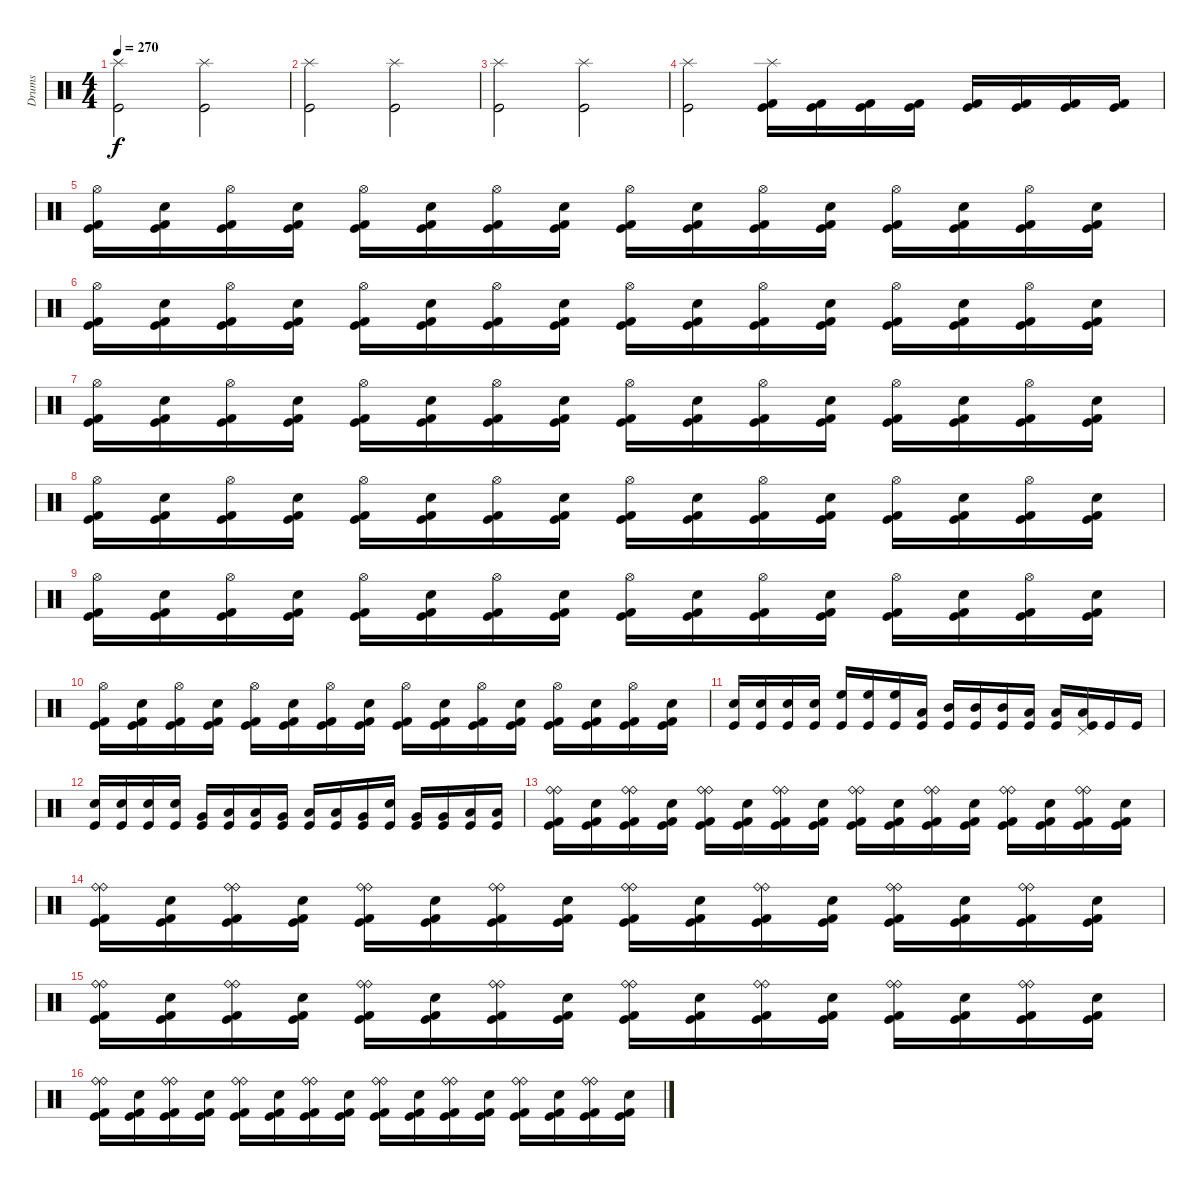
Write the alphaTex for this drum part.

\track ("Drums" "Drums") {instrument percussion}
\staff {score}
\articulation defaults
\ts (4 4)
\tempo 270
\clef neutral
\ks c
("Splash (hit)" "Kick (hit)").2{dy f} ("Splash (hit)" "Kick (hit)").2 |
("Splash (hit)" "Kick (hit)").2 ("Splash (hit)" "Kick (hit)").2 |
("Splash (hit)" "Kick (hit)").2 ("Splash (hit)" "Kick (hit)").2 |
("Splash (hit)" "Kick (hit)").2 ("Splash (hit)" "Kick (hit)" "Kick (hit) 2").16 ("Kick (hit)" "Kick (hit) 2").16 ("Kick (hit)" "Kick (hit) 2").16 ("Kick (hit)" "Kick (hit) 2").16 ("Kick (hit)" "Kick (hit) 2").16 ("Kick (hit)" "Kick (hit) 2").16 ("Kick (hit)" "Kick (hit) 2").16 ("Kick (hit)" "Kick (hit) 2").16 |
("Hi-Hat (open)" "Kick (hit)" "Kick (hit) 2").16 ("Electric Snare (hit)" "Kick (hit)" "Kick (hit) 2").16 ("Hi-Hat (open)" "Kick (hit)" "Kick (hit) 2").16 ("Electric Snare (hit)" "Kick (hit)" "Kick (hit) 2").16 ("Hi-Hat (open)" "Kick (hit)" "Kick (hit) 2").16 ("Electric Snare (hit)" "Kick (hit)" "Kick (hit) 2").16 ("Hi-Hat (open)" "Kick (hit)" "Kick (hit) 2").16 ("Electric Snare (hit)" "Kick (hit)" "Kick (hit) 2").16 ("Hi-Hat (open)" "Kick (hit)" "Kick (hit) 2").16 ("Electric Snare (hit)" "Kick (hit)" "Kick (hit) 2").16 ("Hi-Hat (open)" "Kick (hit)" "Kick (hit) 2").16 ("Electric Snare (hit)" "Kick (hit)" "Kick (hit) 2").16 ("Hi-Hat (open)" "Kick (hit)" "Kick (hit) 2").16 ("Electric Snare (hit)" "Kick (hit)" "Kick (hit) 2").16 ("Hi-Hat (open)" "Kick (hit)" "Kick (hit) 2").16 ("Electric Snare (hit)" "Kick (hit)" "Kick (hit) 2").16 |
("Hi-Hat (open)" "Kick (hit)" "Kick (hit) 2").16 ("Electric Snare (hit)" "Kick (hit)" "Kick (hit) 2").16 ("Hi-Hat (open)" "Kick (hit)" "Kick (hit) 2").16 ("Electric Snare (hit)" "Kick (hit)" "Kick (hit) 2").16 ("Hi-Hat (open)" "Kick (hit)" "Kick (hit) 2").16 ("Electric Snare (hit)" "Kick (hit)" "Kick (hit) 2").16 ("Hi-Hat (open)" "Kick (hit)" "Kick (hit) 2").16 ("Electric Snare (hit)" "Kick (hit)" "Kick (hit) 2").16 ("Hi-Hat (open)" "Kick (hit)" "Kick (hit) 2").16 ("Electric Snare (hit)" "Kick (hit)" "Kick (hit) 2").16 ("Hi-Hat (open)" "Kick (hit)" "Kick (hit) 2").16 ("Electric Snare (hit)" "Kick (hit)" "Kick (hit) 2").16 ("Hi-Hat (open)" "Kick (hit)" "Kick (hit) 2").16 ("Electric Snare (hit)" "Kick (hit)" "Kick (hit) 2").16 ("Hi-Hat (open)" "Kick (hit)" "Kick (hit) 2").16 ("Electric Snare (hit)" "Kick (hit)" "Kick (hit) 2").16 |
("Hi-Hat (open)" "Kick (hit)" "Kick (hit) 2").16 ("Electric Snare (hit)" "Kick (hit)" "Kick (hit) 2").16 ("Hi-Hat (open)" "Kick (hit)" "Kick (hit) 2").16 ("Electric Snare (hit)" "Kick (hit)" "Kick (hit) 2").16 ("Hi-Hat (open)" "Kick (hit)" "Kick (hit) 2").16 ("Electric Snare (hit)" "Kick (hit)" "Kick (hit) 2").16 ("Hi-Hat (open)" "Kick (hit)" "Kick (hit) 2").16 ("Electric Snare (hit)" "Kick (hit)" "Kick (hit) 2").16 ("Hi-Hat (open)" "Kick (hit)" "Kick (hit) 2").16 ("Electric Snare (hit)" "Kick (hit)" "Kick (hit) 2").16 ("Hi-Hat (open)" "Kick (hit)" "Kick (hit) 2").16 ("Electric Snare (hit)" "Kick (hit)" "Kick (hit) 2").16 ("Hi-Hat (open)" "Kick (hit)" "Kick (hit) 2").16 ("Electric Snare (hit)" "Kick (hit)" "Kick (hit) 2").16 ("Hi-Hat (open)" "Kick (hit)" "Kick (hit) 2").16 ("Electric Snare (hit)" "Kick (hit)" "Kick (hit) 2").16 |
("Hi-Hat (open)" "Kick (hit)" "Kick (hit) 2").16 ("Electric Snare (hit)" "Kick (hit)" "Kick (hit) 2").16 ("Hi-Hat (open)" "Kick (hit)" "Kick (hit) 2").16 ("Electric Snare (hit)" "Kick (hit)" "Kick (hit) 2").16 ("Hi-Hat (open)" "Kick (hit)" "Kick (hit) 2").16 ("Electric Snare (hit)" "Kick (hit)" "Kick (hit) 2").16 ("Hi-Hat (open)" "Kick (hit)" "Kick (hit) 2").16 ("Electric Snare (hit)" "Kick (hit)" "Kick (hit) 2").16 ("Hi-Hat (open)" "Kick (hit)" "Kick (hit) 2").16 ("Electric Snare (hit)" "Kick (hit)" "Kick (hit) 2").16 ("Hi-Hat (open)" "Kick (hit)" "Kick (hit) 2").16 ("Electric Snare (hit)" "Kick (hit)" "Kick (hit) 2").16 ("Hi-Hat (open)" "Kick (hit)" "Kick (hit) 2").16 ("Electric Snare (hit)" "Kick (hit)" "Kick (hit) 2").16 ("Hi-Hat (open)" "Kick (hit)" "Kick (hit) 2").16 ("Electric Snare (hit)" "Kick (hit)" "Kick (hit) 2").16 |
("Hi-Hat (open)" "Kick (hit)" "Kick (hit) 2").16 ("Electric Snare (hit)" "Kick (hit)" "Kick (hit) 2").16 ("Hi-Hat (open)" "Kick (hit)" "Kick (hit) 2").16 ("Electric Snare (hit)" "Kick (hit)" "Kick (hit) 2").16 ("Hi-Hat (open)" "Kick (hit)" "Kick (hit) 2").16 ("Electric Snare (hit)" "Kick (hit)" "Kick (hit) 2").16 ("Hi-Hat (open)" "Kick (hit)" "Kick (hit) 2").16 ("Electric Snare (hit)" "Kick (hit)" "Kick (hit) 2").16 ("Hi-Hat (open)" "Kick (hit)" "Kick (hit) 2").16 ("Electric Snare (hit)" "Kick (hit)" "Kick (hit) 2").16 ("Hi-Hat (open)" "Kick (hit)" "Kick (hit) 2").16 ("Electric Snare (hit)" "Kick (hit)" "Kick (hit) 2").16 ("Hi-Hat (open)" "Kick (hit)" "Kick (hit) 2").16 ("Electric Snare (hit)" "Kick (hit)" "Kick (hit) 2").16 ("Hi-Hat (open)" "Kick (hit)" "Kick (hit) 2").16 ("Electric Snare (hit)" "Kick (hit)" "Kick (hit) 2").16 |
("Hi-Hat (open)" "Kick (hit)" "Kick (hit) 2").16 ("Electric Snare (hit)" "Kick (hit)" "Kick (hit) 2").16 ("Hi-Hat (open)" "Kick (hit)" "Kick (hit) 2").16 ("Electric Snare (hit)" "Kick (hit)" "Kick (hit) 2").16 ("Hi-Hat (open)" "Kick (hit)" "Kick (hit) 2").16 ("Electric Snare (hit)" "Kick (hit)" "Kick (hit) 2").16 ("Hi-Hat (open)" "Kick (hit)" "Kick (hit) 2").16 ("Electric Snare (hit)" "Kick (hit)" "Kick (hit) 2").16 ("Hi-Hat (open)" "Kick (hit)" "Kick (hit) 2").16 ("Electric Snare (hit)" "Kick (hit)" "Kick (hit) 2").16 ("Hi-Hat (open)" "Kick (hit)" "Kick (hit) 2").16 ("Electric Snare (hit)" "Kick (hit)" "Kick (hit) 2").16 ("Hi-Hat (open)" "Kick (hit)" "Kick (hit) 2").16 ("Electric Snare (hit)" "Kick (hit)" "Kick (hit) 2").16 ("Hi-Hat (open)" "Kick (hit)" "Kick (hit) 2").16 ("Electric Snare (hit)" "Kick (hit)" "Kick (hit) 2").16 |
("Electric Snare (hit)" "Kick (hit)").16 ("Electric Snare (hit)" "Kick (hit)").16 ("Electric Snare (hit)" "Kick (hit)").16 ("Electric Snare (hit)" "Kick (hit)").16 ("High Floor Tom (hit)" "Kick (hit)").16 ("High Floor Tom (hit)" "Kick (hit)").16 ("High Floor Tom (hit)" "Kick (hit)").16 ("Low Tom (hit)" "Kick (hit)").16 ("Mid Tom (hit)" "Kick (hit)").16 ("Mid Tom (hit)" "Kick (hit)").16 ("Mid Tom (hit)" "Kick (hit)").16 ("Low Tom (hit)" "Kick (hit)").16 ("Low Tom (hit)" "Kick (hit)").16 ("Pedal Hi-Hat (hit)" "Low Tom (hit)" "Kick (hit)").16 "Kick (hit)".16 "Kick (hit)".16 |
("Electric Snare (hit)" "Kick (hit)").16 ("Electric Snare (hit)" "Kick (hit)").16 ("Electric Snare (hit)" "Kick (hit)").16 ("Electric Snare (hit)" "Kick (hit)").16 ("Very Low Tom (hit)" "Kick (hit)").16 ("Low Tom (hit)" "Kick (hit)").16 ("Low Floor Tom (hit)" "Kick (hit)").16 ("Very Low Tom (hit)" "Kick (hit)").16 ("Low Floor Tom (hit)" "Kick (hit)").16 ("Low Floor Tom (hit)" "Kick (hit)").16 ("Very Low Tom (hit)" "Kick (hit)").16 ("Electric Snare (hit)" "Kick (hit)").16 ("Very Low Tom (hit)" "Kick (hit)").16 ("Very Low Tom (hit)" "Kick (hit)").16 ("Low Floor Tom (hit)" "Kick (hit)").16 ("Low Floor Tom (hit)" "Kick (hit)").16 |
("Ride (bell)" "Ride (bell)" "Kick (hit)" "Kick (hit) 2").16 ("Electric Snare (hit)" "Kick (hit)" "Kick (hit) 2").16 ("Ride (bell)" "Ride (bell)" "Kick (hit)" "Kick (hit) 2").16 ("Electric Snare (hit)" "Kick (hit)" "Kick (hit) 2").16 ("Ride (bell)" "Ride (bell)" "Kick (hit)" "Kick (hit) 2").16 ("Electric Snare (hit)" "Kick (hit)" "Kick (hit) 2").16 ("Ride (bell)" "Ride (bell)" "Kick (hit)" "Kick (hit) 2").16 ("Electric Snare (hit)" "Kick (hit)" "Kick (hit) 2").16 ("Ride (bell)" "Ride (bell)" "Kick (hit)" "Kick (hit) 2").16 ("Electric Snare (hit)" "Kick (hit)" "Kick (hit) 2").16 ("Ride (bell)" "Ride (bell)" "Kick (hit)" "Kick (hit) 2").16 ("Electric Snare (hit)" "Kick (hit)" "Kick (hit) 2").16 ("Ride (bell)" "Ride (bell)" "Kick (hit)" "Kick (hit) 2").16 ("Electric Snare (hit)" "Kick (hit)" "Kick (hit) 2").16 ("Ride (bell)" "Ride (bell)" "Kick (hit)" "Kick (hit) 2").16 ("Electric Snare (hit)" "Kick (hit)" "Kick (hit) 2").16 |
("Ride (bell)" "Ride (bell)" "Kick (hit)" "Kick (hit) 2").16 ("Electric Snare (hit)" "Kick (hit)" "Kick (hit) 2").16 ("Ride (bell)" "Ride (bell)" "Kick (hit)" "Kick (hit) 2").16 ("Electric Snare (hit)" "Kick (hit)" "Kick (hit) 2").16 ("Ride (bell)" "Ride (bell)" "Kick (hit)" "Kick (hit) 2").16 ("Electric Snare (hit)" "Kick (hit)" "Kick (hit) 2").16 ("Ride (bell)" "Ride (bell)" "Kick (hit)" "Kick (hit) 2").16 ("Electric Snare (hit)" "Kick (hit)" "Kick (hit) 2").16 ("Ride (bell)" "Ride (bell)" "Kick (hit)" "Kick (hit) 2").16 ("Electric Snare (hit)" "Kick (hit)" "Kick (hit) 2").16 ("Ride (bell)" "Ride (bell)" "Kick (hit)" "Kick (hit) 2").16 ("Electric Snare (hit)" "Kick (hit)" "Kick (hit) 2").16 ("Ride (bell)" "Ride (bell)" "Kick (hit)" "Kick (hit) 2").16 ("Electric Snare (hit)" "Kick (hit)" "Kick (hit) 2").16 ("Ride (bell)" "Ride (bell)" "Kick (hit)" "Kick (hit) 2").16 ("Electric Snare (hit)" "Kick (hit)" "Kick (hit) 2").16 |
("Ride (bell)" "Ride (bell)" "Kick (hit)" "Kick (hit) 2").16 ("Electric Snare (hit)" "Kick (hit)" "Kick (hit) 2").16 ("Ride (bell)" "Ride (bell)" "Kick (hit)" "Kick (hit) 2").16 ("Electric Snare (hit)" "Kick (hit)" "Kick (hit) 2").16 ("Ride (bell)" "Ride (bell)" "Kick (hit)" "Kick (hit) 2").16 ("Electric Snare (hit)" "Kick (hit)" "Kick (hit) 2").16 ("Ride (bell)" "Ride (bell)" "Kick (hit)" "Kick (hit) 2").16 ("Electric Snare (hit)" "Kick (hit)" "Kick (hit) 2").16 ("Ride (bell)" "Ride (bell)" "Kick (hit)" "Kick (hit) 2").16 ("Electric Snare (hit)" "Kick (hit)" "Kick (hit) 2").16 ("Ride (bell)" "Ride (bell)" "Kick (hit)" "Kick (hit) 2").16 ("Electric Snare (hit)" "Kick (hit)" "Kick (hit) 2").16 ("Ride (bell)" "Ride (bell)" "Kick (hit)" "Kick (hit) 2").16 ("Electric Snare (hit)" "Kick (hit)" "Kick (hit) 2").16 ("Ride (bell)" "Ride (bell)" "Kick (hit)" "Kick (hit) 2").16 ("Electric Snare (hit)" "Kick (hit)" "Kick (hit) 2").16 |
("Ride (bell)" "Ride (bell)" "Kick (hit)" "Kick (hit) 2").16 ("Electric Snare (hit)" "Kick (hit)" "Kick (hit) 2").16 ("Ride (bell)" "Ride (bell)" "Kick (hit)" "Kick (hit) 2").16 ("Electric Snare (hit)" "Kick (hit)" "Kick (hit) 2").16 ("Ride (bell)" "Ride (bell)" "Kick (hit)" "Kick (hit) 2").16 ("Electric Snare (hit)" "Kick (hit)" "Kick (hit) 2").16 ("Ride (bell)" "Ride (bell)" "Kick (hit)" "Kick (hit) 2").16 ("Electric Snare (hit)" "Kick (hit)" "Kick (hit) 2").16 ("Ride (bell)" "Ride (bell)" "Kick (hit)" "Kick (hit) 2").16 ("Electric Snare (hit)" "Kick (hit)" "Kick (hit) 2").16 ("Ride (bell)" "Ride (bell)" "Kick (hit)" "Kick (hit) 2").16 ("Electric Snare (hit)" "Kick (hit)" "Kick (hit) 2").16 ("Ride (bell)" "Ride (bell)" "Kick (hit)" "Kick (hit) 2").16 ("Electric Snare (hit)" "Kick (hit)" "Kick (hit) 2").16 ("Ride (bell)" "Ride (bell)" "Kick (hit)" "Kick (hit) 2").16 ("Electric Snare (hit)" "Kick (hit)" "Kick (hit) 2").16
